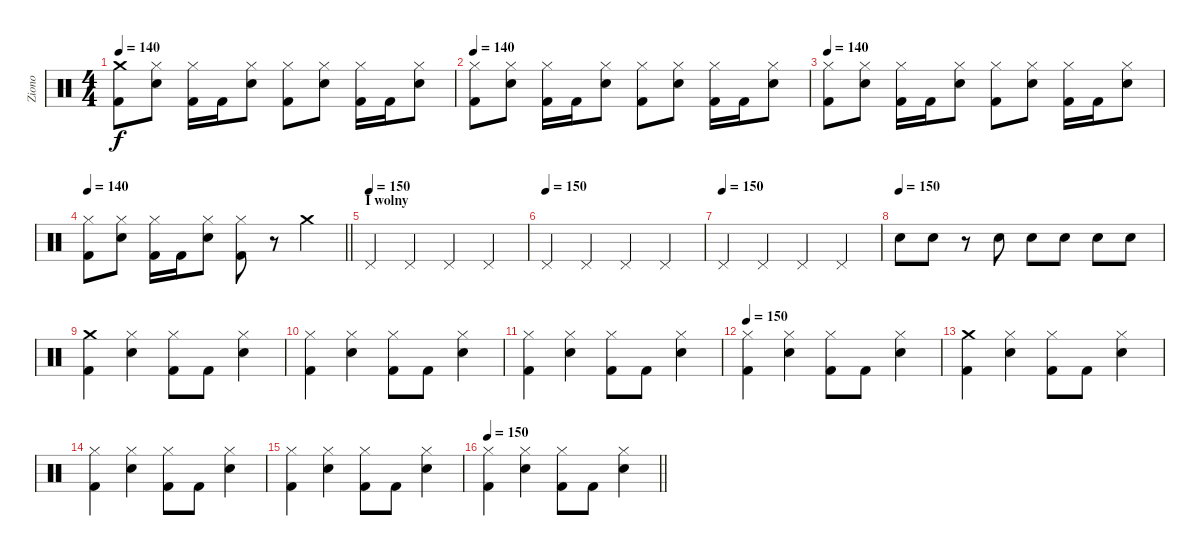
\track ("Ziono" "Ziono") {instrument percussion}
\staff {score}
\articulation defaults
\ts (4 4)
\tempo 140
\clef neutral
\ks c
("Kick (hit) 2" "Crash medium (hit)").8{dy f} ("Hi-Hat (closed)" "Snare (hit) 2").8 ("Hi-Hat (closed)" "Kick (hit) 2").16 "Kick (hit) 2".16 ("Hi-Hat (closed)" "Snare (hit) 2").8 ("Hi-Hat (closed)" "Kick (hit) 2").8 ("Hi-Hat (closed)" "Snare (hit) 2").8 ("Hi-Hat (closed)" "Kick (hit) 2").16 "Kick (hit) 2".16 ("Hi-Hat (closed)" "Snare (hit) 2").8 |
\tempo 140
("Hi-Hat (closed)" "Kick (hit) 2").8 ("Hi-Hat (closed)" "Snare (hit) 2").8 ("Hi-Hat (closed)" "Kick (hit) 2").16 "Kick (hit) 2".16 ("Hi-Hat (closed)" "Snare (hit) 2").8 ("Hi-Hat (closed)" "Kick (hit) 2").8 ("Hi-Hat (closed)" "Snare (hit) 2").8 ("Hi-Hat (closed)" "Kick (hit) 2").16 "Kick (hit) 2".16 ("Hi-Hat (closed)" "Snare (hit) 2").8 |
\tempo 140
("Hi-Hat (closed)" "Kick (hit) 2").8 ("Hi-Hat (closed)" "Snare (hit) 2").8 ("Hi-Hat (closed)" "Kick (hit) 2").16 "Kick (hit) 2".16 ("Hi-Hat (closed)" "Snare (hit) 2").8 ("Hi-Hat (closed)" "Kick (hit) 2").8 ("Hi-Hat (closed)" "Snare (hit) 2").8 ("Hi-Hat (closed)" "Kick (hit) 2").16 "Kick (hit) 2".16 ("Hi-Hat (closed)" "Snare (hit) 2").8 |
\tempo 140
\barLineRight lightlight
("Hi-Hat (closed)" "Kick (hit) 2").8 ("Hi-Hat (closed)" "Snare (hit) 2").8 ("Hi-Hat (closed)" "Kick (hit) 2").16 "Kick (hit) 2".16 ("Hi-Hat (closed)" "Snare (hit) 2").8 ("Hi-Hat (closed)" "Kick (hit) 2").8 r.8 "Crash medium (hit)".4 |
\section ("" "I wolny")
\tempo (150)
"Pedal Hi-Hat (hit)".4 "Pedal Hi-Hat (hit)".4 "Pedal Hi-Hat (hit)".4 "Pedal Hi-Hat (hit)".4 |
\tempo (150)
"Pedal Hi-Hat (hit)".4 "Pedal Hi-Hat (hit)".4 "Pedal Hi-Hat (hit)".4 "Pedal Hi-Hat (hit)".4 |
\tempo (150)
"Pedal Hi-Hat (hit)".4 "Pedal Hi-Hat (hit)".4 "Pedal Hi-Hat (hit)".4 "Pedal Hi-Hat (hit)".4 |
\tempo (150)
"Snare (hit) 2".8 "Snare (hit) 2".8 r.8 "Snare (hit) 2".8 "Snare (hit) 2".8 "Snare (hit) 2".8 "Snare (hit) 2".8 "Snare (hit) 2".8 |
("Kick (hit) 2" "Crash medium (hit)").4 ("Hi-Hat (closed)" "Snare (hit) 2").4 ("Hi-Hat (closed)" "Kick (hit) 2").8 "Kick (hit) 2".8 ("Hi-Hat (closed)" "Snare (hit) 2").4 |
("Hi-Hat (closed)" "Kick (hit) 2").4 ("Hi-Hat (closed)" "Snare (hit) 2").4 ("Hi-Hat (closed)" "Kick (hit) 2").8 "Kick (hit) 2".8 ("Hi-Hat (closed)" "Snare (hit) 2").4 |
("Hi-Hat (closed)" "Kick (hit) 2").4 ("Hi-Hat (closed)" "Snare (hit) 2").4 ("Hi-Hat (closed)" "Kick (hit) 2").8 "Kick (hit) 2".8 ("Hi-Hat (closed)" "Snare (hit) 2").4 |
\tempo 150
("Hi-Hat (closed)" "Kick (hit) 2").4 ("Hi-Hat (closed)" "Snare (hit) 2").4 ("Hi-Hat (closed)" "Kick (hit) 2").8 "Kick (hit) 2".8 ("Hi-Hat (closed)" "Snare (hit) 2").4 |
("Kick (hit) 2" "Crash medium (hit)").4 ("Hi-Hat (closed)" "Snare (hit) 2").4 ("Hi-Hat (closed)" "Kick (hit) 2").8 "Kick (hit) 2".8 ("Hi-Hat (closed)" "Snare (hit) 2").4 |
("Hi-Hat (closed)" "Kick (hit) 2").4 ("Hi-Hat (closed)" "Snare (hit) 2").4 ("Hi-Hat (closed)" "Kick (hit) 2").8 "Kick (hit) 2".8 ("Hi-Hat (closed)" "Snare (hit) 2").4 |
("Hi-Hat (closed)" "Kick (hit) 2").4 ("Hi-Hat (closed)" "Snare (hit) 2").4 ("Hi-Hat (closed)" "Kick (hit) 2").8 "Kick (hit) 2".8 ("Hi-Hat (closed)" "Snare (hit) 2").4 |
\tempo 150
\barLineRight lightlight
("Hi-Hat (closed)" "Kick (hit) 2").4 ("Hi-Hat (closed)" "Snare (hit) 2").4 ("Hi-Hat (closed)" "Kick (hit) 2").8 "Kick (hit) 2".8 ("Hi-Hat (closed)" "Snare (hit) 2").4
